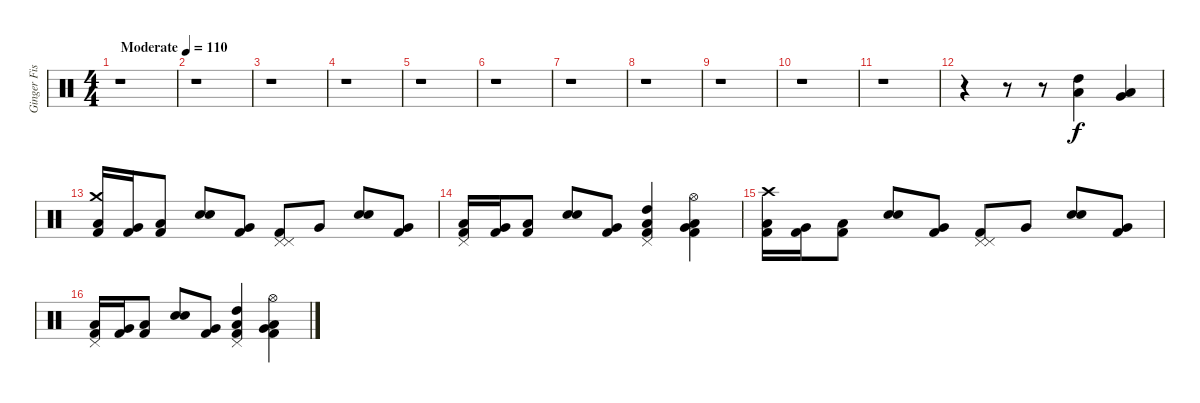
\track ("Ginger Fish" "Ginger Fis") {instrument percussion}
\staff {score}
\articulation defaults
\ts (4 4)
\tempo (110 "Moderate")
\clef neutral
\ks c
r.1{dy f} |
r.1 |
r.1 |
r.1 |
r.1 |
r.1 |
r.1 |
r.1 |
r.1 |
r.1 |
r.1 |
r.4 r.8 r.8 ("High Tom (hit)" "Low Tom (hit)").4 ("Very Low Tom (hit)" "Low Tom (hit)").4 |
("Crash medium (hit)" "Low Tom (hit)" "Kick (hit) 2").16 ("Very Low Tom (hit)" "Kick (hit) 2").16 ("Low Tom (hit)" "Kick (hit) 2").8 ("Electric Snare (hit)" "Electric Snare (hit)").8 ("Very Low Tom (hit)" "Kick (hit) 2").8 ("Pedal Hi-Hat (hit)" "Pedal Hi-Hat (hit)" "Kick (hit) 2").8 "Very Low Tom (hit)".8 ("Electric Snare (hit)" "Electric Snare (hit)").8 ("Very Low Tom (hit)" "Kick (hit) 2").8 |
("Pedal Hi-Hat (hit)" "Low Tom (hit)" "Kick (hit) 2").16 ("Very Low Tom (hit)" "Kick (hit) 2").16 ("Low Tom (hit)" "Kick (hit) 2").8 ("Electric Snare (hit)" "Electric Snare (hit)").8 ("Very Low Tom (hit)" "Kick (hit) 2").8 ("Pedal Hi-Hat (hit)" "High Tom (hit)" "Low Tom (hit)" "Kick (hit) 2").4 ("Hi-Hat (open)" "Very Low Tom (hit)" "Low Tom (hit)" "Kick (hit) 2").4 |
("Crash high (hit)" "Low Tom (hit)" "Kick (hit) 2").16 ("Very Low Tom (hit)" "Kick (hit) 2").16 ("Low Tom (hit)" "Kick (hit) 2").8 ("Electric Snare (hit)" "Electric Snare (hit)").8 ("Very Low Tom (hit)" "Kick (hit) 2").8 ("Pedal Hi-Hat (hit)" "Pedal Hi-Hat (hit)" "Kick (hit) 2").8 "Very Low Tom (hit)".8 ("Electric Snare (hit)" "Electric Snare (hit)").8 ("Very Low Tom (hit)" "Kick (hit) 2").8 |
("Pedal Hi-Hat (hit)" "Low Tom (hit)" "Kick (hit) 2").16 ("Very Low Tom (hit)" "Kick (hit) 2").16 ("Low Tom (hit)" "Kick (hit) 2").8 ("Electric Snare (hit)" "Electric Snare (hit)").8 ("Very Low Tom (hit)" "Kick (hit) 2").8 ("Pedal Hi-Hat (hit)" "High Tom (hit)" "Low Tom (hit)" "Kick (hit) 2").4 ("Hi-Hat (open)" "Very Low Tom (hit)" "Low Tom (hit)" "Kick (hit) 2").4
